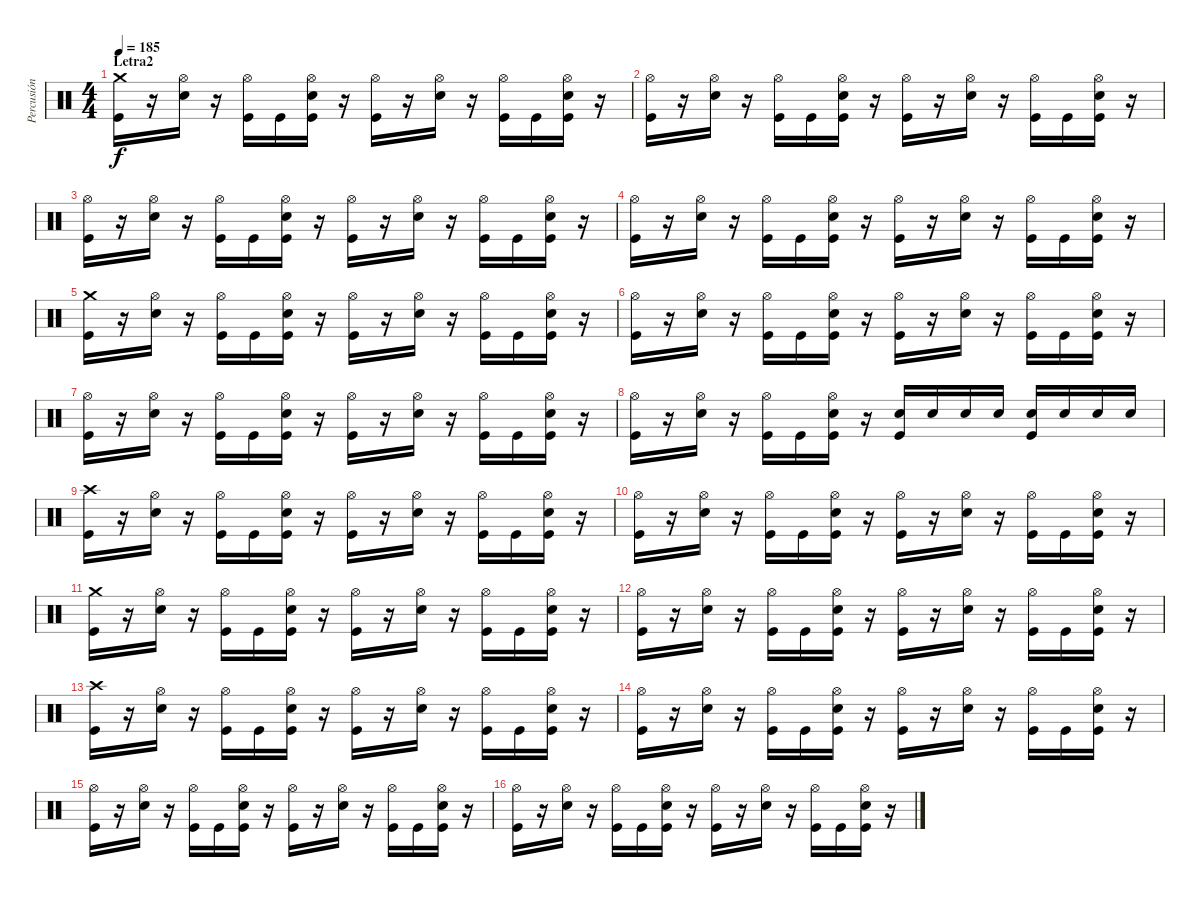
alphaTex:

\track ("Percusión" "Percusión") {instrument percussion}
\staff {score}
\articulation defaults
\ts (4 4)
\section ("" "Letra2")
\tempo 185
\clef neutral
\ks c
("Crash medium (hit)" "Kick (hit)").16{dy f} r.16 ("Hi-Hat (open)" "Electric Snare (hit)").16 r.16 ("Hi-Hat (open)" "Kick (hit)").16 "Kick (hit)".16 ("Hi-Hat (open)" "Electric Snare (hit)" "Kick (hit)").16 r.16 ("Hi-Hat (open)" "Kick (hit)").16 r.16 ("Hi-Hat (open)" "Electric Snare (hit)").16 r.16 ("Hi-Hat (open)" "Kick (hit)").16 "Kick (hit)".16 ("Hi-Hat (open)" "Electric Snare (hit)" "Kick (hit)").16 r.16 |
("Hi-Hat (open)" "Kick (hit)").16 r.16 ("Hi-Hat (open)" "Electric Snare (hit)").16 r.16 ("Hi-Hat (open)" "Kick (hit)").16 "Kick (hit)".16 ("Hi-Hat (open)" "Electric Snare (hit)" "Kick (hit)").16 r.16 ("Hi-Hat (open)" "Kick (hit)").16 r.16 ("Hi-Hat (open)" "Electric Snare (hit)").16 r.16 ("Hi-Hat (open)" "Kick (hit)").16 "Kick (hit)".16 ("Hi-Hat (open)" "Electric Snare (hit)" "Kick (hit)").16 r.16 |
("Hi-Hat (open)" "Kick (hit)").16 r.16 ("Hi-Hat (open)" "Electric Snare (hit)").16 r.16 ("Hi-Hat (open)" "Kick (hit)").16 "Kick (hit)".16 ("Hi-Hat (open)" "Electric Snare (hit)" "Kick (hit)").16 r.16 ("Hi-Hat (open)" "Kick (hit)").16 r.16 ("Hi-Hat (open)" "Electric Snare (hit)").16 r.16 ("Hi-Hat (open)" "Kick (hit)").16 "Kick (hit)".16 ("Hi-Hat (open)" "Electric Snare (hit)" "Kick (hit)").16 r.16 |
("Hi-Hat (open)" "Kick (hit)").16 r.16 ("Hi-Hat (open)" "Electric Snare (hit)").16 r.16 ("Hi-Hat (open)" "Kick (hit)").16 "Kick (hit)".16 ("Hi-Hat (open)" "Electric Snare (hit)" "Kick (hit)").16 r.16 ("Hi-Hat (open)" "Kick (hit)").16 r.16 ("Hi-Hat (open)" "Electric Snare (hit)").16 r.16 ("Hi-Hat (open)" "Kick (hit)").16 "Kick (hit)".16 ("Hi-Hat (open)" "Electric Snare (hit)" "Kick (hit)").16 r.16 |
("Crash medium (hit)" "Kick (hit)").16 r.16 ("Hi-Hat (open)" "Electric Snare (hit)").16 r.16 ("Hi-Hat (open)" "Kick (hit)").16 "Kick (hit)".16 ("Hi-Hat (open)" "Electric Snare (hit)" "Kick (hit)").16 r.16 ("Hi-Hat (open)" "Kick (hit)").16 r.16 ("Hi-Hat (open)" "Electric Snare (hit)").16 r.16 ("Hi-Hat (open)" "Kick (hit)").16 "Kick (hit)".16 ("Hi-Hat (open)" "Electric Snare (hit)" "Kick (hit)").16 r.16 |
("Hi-Hat (open)" "Kick (hit)").16 r.16 ("Hi-Hat (open)" "Electric Snare (hit)").16 r.16 ("Hi-Hat (open)" "Kick (hit)").16 "Kick (hit)".16 ("Hi-Hat (open)" "Electric Snare (hit)" "Kick (hit)").16 r.16 ("Hi-Hat (open)" "Kick (hit)").16 r.16 ("Hi-Hat (open)" "Electric Snare (hit)").16 r.16 ("Hi-Hat (open)" "Kick (hit)").16 "Kick (hit)".16 ("Hi-Hat (open)" "Electric Snare (hit)" "Kick (hit)").16 r.16 |
("Hi-Hat (open)" "Kick (hit)").16 r.16 ("Hi-Hat (open)" "Electric Snare (hit)").16 r.16 ("Hi-Hat (open)" "Kick (hit)").16 "Kick (hit)".16 ("Hi-Hat (open)" "Electric Snare (hit)" "Kick (hit)").16 r.16 ("Hi-Hat (open)" "Kick (hit)").16 r.16 ("Hi-Hat (open)" "Electric Snare (hit)").16 r.16 ("Hi-Hat (open)" "Kick (hit)").16 "Kick (hit)".16 ("Hi-Hat (open)" "Electric Snare (hit)" "Kick (hit)").16 r.16 |
("Hi-Hat (open)" "Kick (hit)").16 r.16 ("Hi-Hat (open)" "Electric Snare (hit)").16 r.16 ("Hi-Hat (open)" "Kick (hit)").16 "Kick (hit)".16 ("Hi-Hat (open)" "Electric Snare (hit)" "Kick (hit)").16 r.16 ("Electric Snare (hit)" "Kick (hit)").16 "Electric Snare (hit)".16 "Electric Snare (hit)".16 "Electric Snare (hit)".16 ("Electric Snare (hit)" "Kick (hit)").16 "Electric Snare (hit)".16 "Electric Snare (hit)".16 "Electric Snare (hit)".16 |
("Crash high (hit)" "Kick (hit)").16 r.16 ("Hi-Hat (open)" "Electric Snare (hit)").16 r.16 ("Hi-Hat (open)" "Kick (hit)").16 "Kick (hit)".16 ("Hi-Hat (open)" "Electric Snare (hit)" "Kick (hit)").16 r.16 ("Hi-Hat (open)" "Kick (hit)").16 r.16 ("Hi-Hat (open)" "Electric Snare (hit)").16 r.16 ("Hi-Hat (open)" "Kick (hit)").16 "Kick (hit)".16 ("Hi-Hat (open)" "Electric Snare (hit)" "Kick (hit)").16 r.16 |
("Hi-Hat (open)" "Kick (hit)").16 r.16 ("Hi-Hat (open)" "Electric Snare (hit)").16 r.16 ("Hi-Hat (open)" "Kick (hit)").16 "Kick (hit)".16 ("Hi-Hat (open)" "Electric Snare (hit)" "Kick (hit)").16 r.16 ("Hi-Hat (open)" "Kick (hit)").16 r.16 ("Hi-Hat (open)" "Electric Snare (hit)").16 r.16 ("Hi-Hat (open)" "Kick (hit)").16 "Kick (hit)".16 ("Hi-Hat (open)" "Electric Snare (hit)" "Kick (hit)").16 r.16 |
("Crash medium (hit)" "Kick (hit)").16 r.16 ("Hi-Hat (open)" "Electric Snare (hit)").16 r.16 ("Hi-Hat (open)" "Kick (hit)").16 "Kick (hit)".16 ("Hi-Hat (open)" "Electric Snare (hit)" "Kick (hit)").16 r.16 ("Hi-Hat (open)" "Kick (hit)").16 r.16 ("Hi-Hat (open)" "Electric Snare (hit)").16 r.16 ("Hi-Hat (open)" "Kick (hit)").16 "Kick (hit)".16 ("Hi-Hat (open)" "Electric Snare (hit)" "Kick (hit)").16 r.16 |
("Hi-Hat (open)" "Kick (hit)").16 r.16 ("Hi-Hat (open)" "Electric Snare (hit)").16 r.16 ("Hi-Hat (open)" "Kick (hit)").16 "Kick (hit)".16 ("Hi-Hat (open)" "Electric Snare (hit)" "Kick (hit)").16 r.16 ("Hi-Hat (open)" "Kick (hit)").16 r.16 ("Hi-Hat (open)" "Electric Snare (hit)").16 r.16 ("Hi-Hat (open)" "Kick (hit)").16 "Kick (hit)".16 ("Hi-Hat (open)" "Electric Snare (hit)" "Kick (hit)").16 r.16 |
("Crash high (hit)" "Kick (hit)").16 r.16 ("Hi-Hat (open)" "Electric Snare (hit)").16 r.16 ("Hi-Hat (open)" "Kick (hit)").16 "Kick (hit)".16 ("Hi-Hat (open)" "Electric Snare (hit)" "Kick (hit)").16 r.16 ("Hi-Hat (open)" "Kick (hit)").16 r.16 ("Hi-Hat (open)" "Electric Snare (hit)").16 r.16 ("Hi-Hat (open)" "Kick (hit)").16 "Kick (hit)".16 ("Hi-Hat (open)" "Electric Snare (hit)" "Kick (hit)").16 r.16 |
("Hi-Hat (open)" "Kick (hit)").16 r.16 ("Hi-Hat (open)" "Electric Snare (hit)").16 r.16 ("Hi-Hat (open)" "Kick (hit)").16 "Kick (hit)".16 ("Hi-Hat (open)" "Electric Snare (hit)" "Kick (hit)").16 r.16 ("Hi-Hat (open)" "Kick (hit)").16 r.16 ("Hi-Hat (open)" "Electric Snare (hit)").16 r.16 ("Hi-Hat (open)" "Kick (hit)").16 "Kick (hit)".16 ("Hi-Hat (open)" "Electric Snare (hit)" "Kick (hit)").16 r.16 |
("Hi-Hat (open)" "Kick (hit)").16 r.16 ("Hi-Hat (open)" "Electric Snare (hit)").16 r.16 ("Hi-Hat (open)" "Kick (hit)").16 "Kick (hit)".16 ("Hi-Hat (open)" "Electric Snare (hit)" "Kick (hit)").16 r.16 ("Hi-Hat (open)" "Kick (hit)").16 r.16 ("Hi-Hat (open)" "Electric Snare (hit)").16 r.16 ("Hi-Hat (open)" "Kick (hit)").16 "Kick (hit)".16 ("Hi-Hat (open)" "Electric Snare (hit)" "Kick (hit)").16 r.16 |
("Hi-Hat (open)" "Kick (hit)").16 r.16 ("Hi-Hat (open)" "Electric Snare (hit)").16 r.16 ("Hi-Hat (open)" "Kick (hit)").16 "Kick (hit)".16 ("Hi-Hat (open)" "Electric Snare (hit)" "Kick (hit)").16 r.16 ("Hi-Hat (open)" "Kick (hit)").16 r.16 ("Hi-Hat (open)" "Electric Snare (hit)").16 r.16 ("Hi-Hat (open)" "Kick (hit)").16 "Kick (hit)".16 ("Hi-Hat (open)" "Electric Snare (hit)" "Kick (hit)").16 r.16
